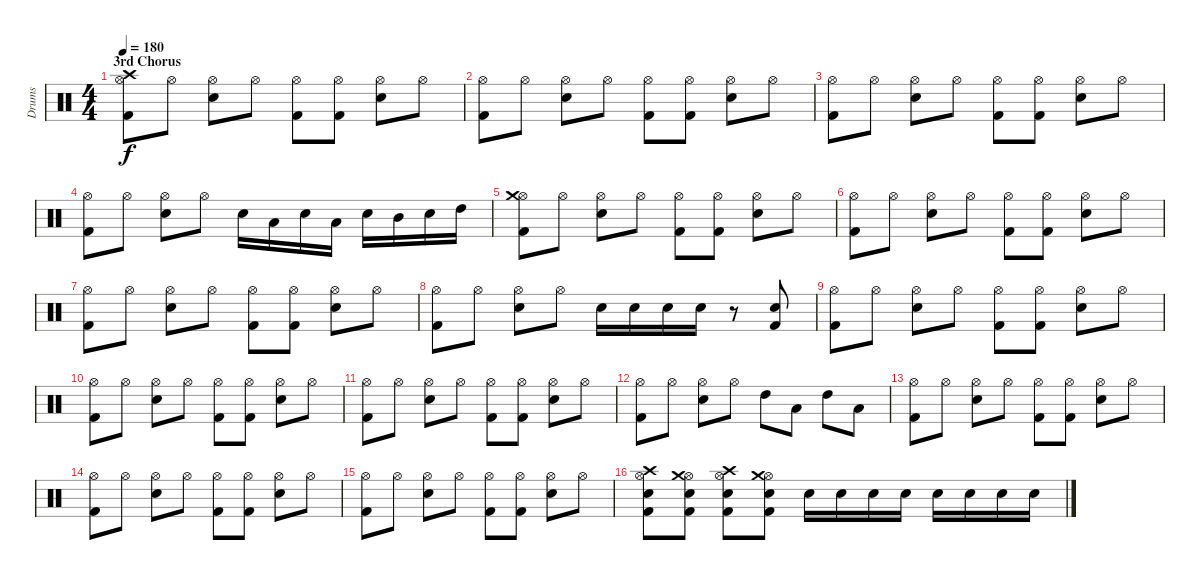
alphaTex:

\track ("Drums" "Drums") {instrument percussion}
\staff {score}
\articulation defaults
\ts (4 4)
\section ("" "3rd Chorus")
\tempo 180
\clef neutral
\ks c
("Hi-Hat (open)" "Crash high (hit)" "Kick (hit) 2").8{dy f} "Hi-Hat (open)".8 ("Hi-Hat (open)" "Snare (hit) 2").8 "Hi-Hat (open)".8 ("Hi-Hat (open)" "Kick (hit) 2").8 ("Hi-Hat (open)" "Kick (hit) 2").8 ("Hi-Hat (open)" "Snare (hit) 2").8 "Hi-Hat (open)".8 |
("Hi-Hat (open)" "Kick (hit) 2").8 "Hi-Hat (open)".8 ("Hi-Hat (open)" "Snare (hit) 2").8 "Hi-Hat (open)".8 ("Hi-Hat (open)" "Kick (hit) 2").8 ("Hi-Hat (open)" "Kick (hit) 2").8 ("Hi-Hat (open)" "Snare (hit) 2").8 "Hi-Hat (open)".8 |
("Hi-Hat (open)" "Kick (hit) 2").8 "Hi-Hat (open)".8 ("Hi-Hat (open)" "Snare (hit) 2").8 "Hi-Hat (open)".8 ("Hi-Hat (open)" "Kick (hit) 2").8 ("Hi-Hat (open)" "Kick (hit) 2").8 ("Hi-Hat (open)" "Snare (hit) 2").8 "Hi-Hat (open)".8 |
("Hi-Hat (open)" "Kick (hit) 2").8 "Hi-Hat (open)".8 ("Hi-Hat (open)" "Snare (hit) 2").8 "Hi-Hat (open)".8 "Snare (hit) 2".16 "Low Floor Tom (hit)".16 "Snare (hit) 2".16 "Low Tom (hit)".16 "Snare (hit) 2".16 "Mid Tom (hit)".16 "Snare (hit) 2".16 "High Tom (hit)".16 |
("Hi-Hat (open)" "Crash medium (hit)" "Kick (hit) 2").8 "Hi-Hat (open)".8 ("Hi-Hat (open)" "Snare (hit) 2").8 "Hi-Hat (open)".8 ("Hi-Hat (open)" "Kick (hit) 2").8 ("Hi-Hat (open)" "Kick (hit) 2").8 ("Hi-Hat (open)" "Snare (hit) 2").8 "Hi-Hat (open)".8 |
("Hi-Hat (open)" "Kick (hit) 2").8 "Hi-Hat (open)".8 ("Hi-Hat (open)" "Snare (hit) 2").8 "Hi-Hat (open)".8 ("Hi-Hat (open)" "Kick (hit) 2").8 ("Hi-Hat (open)" "Kick (hit) 2").8 ("Hi-Hat (open)" "Snare (hit) 2").8 "Hi-Hat (open)".8 |
("Hi-Hat (open)" "Kick (hit) 2").8 "Hi-Hat (open)".8 ("Hi-Hat (open)" "Snare (hit) 2").8 "Hi-Hat (open)".8 ("Hi-Hat (open)" "Kick (hit) 2").8 ("Hi-Hat (open)" "Kick (hit) 2").8 ("Hi-Hat (open)" "Snare (hit) 2").8 "Hi-Hat (open)".8 |
("Hi-Hat (open)" "Kick (hit) 2").8 "Hi-Hat (open)".8 ("Hi-Hat (open)" "Snare (hit) 2").8 "Hi-Hat (open)".8 "Snare (hit) 2".16 "Snare (hit) 2".16 "Snare (hit) 2".16 "Snare (hit) 2".16 r.8 ("Snare (hit) 2" "Kick (hit) 2").8 |
("Hi-Hat (open)" "Kick (hit) 2").8 "Hi-Hat (open)".8 ("Hi-Hat (open)" "Snare (hit) 2").8 "Hi-Hat (open)".8 ("Hi-Hat (open)" "Kick (hit) 2").8 ("Hi-Hat (open)" "Kick (hit) 2").8 ("Hi-Hat (open)" "Snare (hit) 2").8 "Hi-Hat (open)".8 |
("Hi-Hat (open)" "Kick (hit) 2").8 "Hi-Hat (open)".8 ("Hi-Hat (open)" "Snare (hit) 2").8 "Hi-Hat (open)".8 ("Hi-Hat (open)" "Kick (hit) 2").8 ("Hi-Hat (open)" "Kick (hit) 2").8 ("Hi-Hat (open)" "Snare (hit) 2").8 "Hi-Hat (open)".8 |
("Hi-Hat (open)" "Kick (hit) 2").8 "Hi-Hat (open)".8 ("Hi-Hat (open)" "Snare (hit) 2").8 "Hi-Hat (open)".8 ("Hi-Hat (open)" "Kick (hit) 2").8 ("Hi-Hat (open)" "Kick (hit) 2").8 ("Hi-Hat (open)" "Snare (hit) 2").8 "Hi-Hat (open)".8 |
("Hi-Hat (open)" "Kick (hit) 2").8 "Hi-Hat (open)".8 ("Hi-Hat (open)" "Snare (hit) 2").8 "Hi-Hat (open)".8 "High Tom (hit)".8 "Low Tom (hit)".8 "High Tom (hit)".8 "Low Tom (hit)".8 |
("Hi-Hat (open)" "Kick (hit) 2").8 "Hi-Hat (open)".8 ("Hi-Hat (open)" "Snare (hit) 2").8 "Hi-Hat (open)".8 ("Hi-Hat (open)" "Kick (hit) 2").8 ("Hi-Hat (open)" "Kick (hit) 2").8 ("Hi-Hat (open)" "Snare (hit) 2").8 "Hi-Hat (open)".8 |
("Hi-Hat (open)" "Kick (hit) 2").8 "Hi-Hat (open)".8 ("Hi-Hat (open)" "Snare (hit) 2").8 "Hi-Hat (open)".8 ("Hi-Hat (open)" "Kick (hit) 2").8 ("Hi-Hat (open)" "Kick (hit) 2").8 ("Hi-Hat (open)" "Snare (hit) 2").8 "Hi-Hat (open)".8 |
("Hi-Hat (open)" "Kick (hit) 2").8 "Hi-Hat (open)".8 ("Hi-Hat (open)" "Snare (hit) 2").8 "Hi-Hat (open)".8 ("Hi-Hat (open)" "Kick (hit) 2").8 ("Hi-Hat (open)" "Kick (hit) 2").8 ("Hi-Hat (open)" "Snare (hit) 2").8 "Hi-Hat (open)".8 |
("Hi-Hat (open)" "Crash high (hit)" "Snare (hit) 2" "Kick (hit) 2").8 ("Hi-Hat (open)" "Crash medium (hit)" "Snare (hit) 2" "Kick (hit) 2").8 ("Hi-Hat (open)" "Crash high (hit)" "Snare (hit) 2" "Kick (hit) 2").8 ("Hi-Hat (open)" "Crash medium (hit)" "Snare (hit) 2" "Kick (hit) 2").8 "Snare (hit) 2".16 "Snare (hit) 2".16 "Snare (hit) 2".16 "Snare (hit) 2".16 "Snare (hit) 2".16 "Snare (hit) 2".16 "Snare (hit) 2".16 "Snare (hit) 2".16
